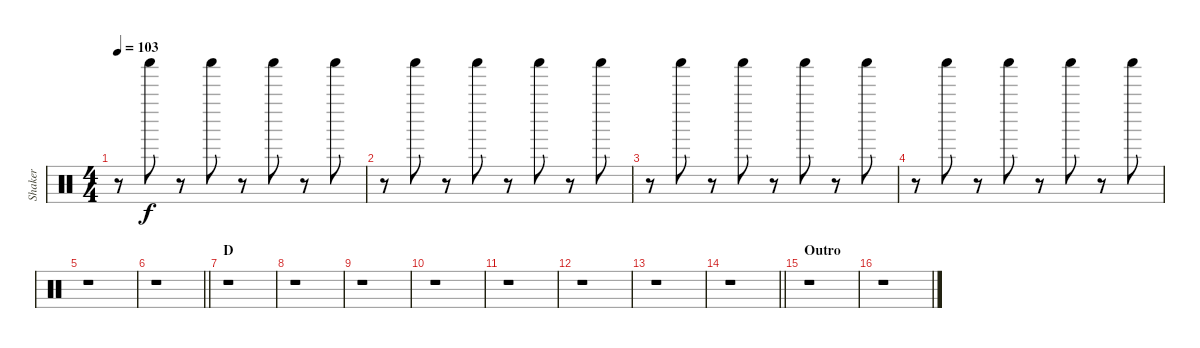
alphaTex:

\track ("Shaker" "Shaker") {instrument percussion}
\staff {score}
\articulation defaults
\ts (4 4)
\tempo 103
\clef neutral
\ks c
r.8{dy f} "Shaker (hit)".8 r.8 "Shaker (hit)".8 r.8 "Shaker (hit)".8 r.8 "Shaker (hit)".8 |
r.8 "Shaker (hit)".8 r.8 "Shaker (hit)".8 r.8 "Shaker (hit)".8 r.8 "Shaker (hit)".8 |
r.8 "Shaker (hit)".8 r.8 "Shaker (hit)".8 r.8 "Shaker (hit)".8 r.8 "Shaker (hit)".8 |
r.8 "Shaker (hit)".8 r.8 "Shaker (hit)".8 r.8 "Shaker (hit)".8 r.8 "Shaker (hit)".8 |
r.1 |
\barLineRight lightlight
r.1 |
\section ("" "D")
r.1 |
r.1 |
r.1 |
r.1 |
r.1 |
r.1 |
r.1 |
\barLineRight lightlight
r.1 |
\section ("" "Outro")
r.1 |
r.1
